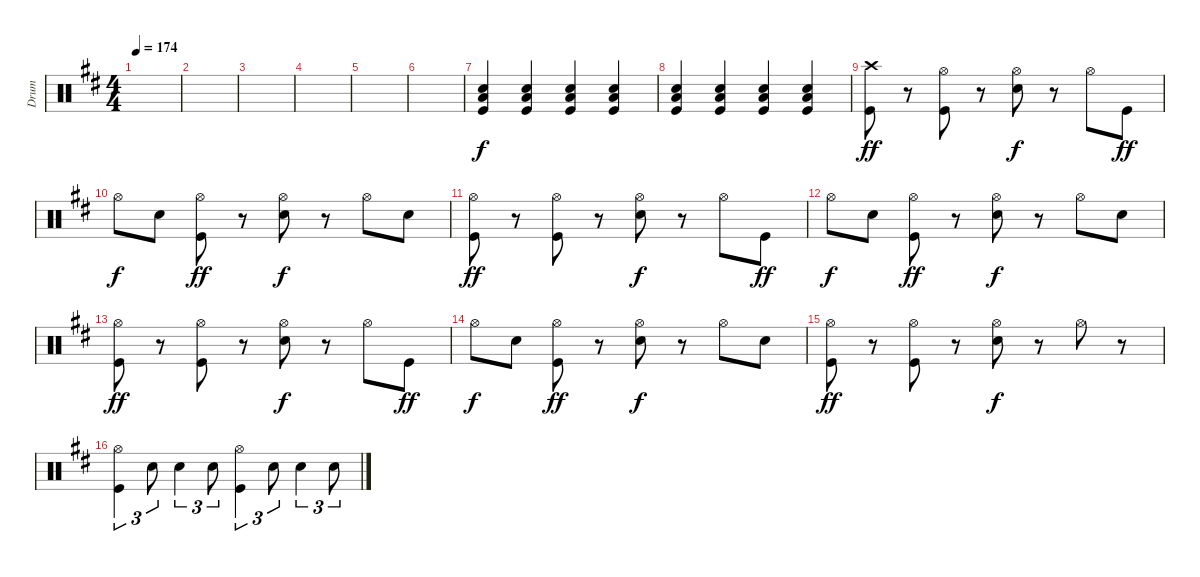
\track ("Drum" "Drum") {instrument percussion}
\staff {score}
\articulation defaults
\ts (4 4)
\tempo 174
\clef neutral
\ks d
|
|
|
|
|
|
("Low Floor Tom (hit)" "Snare (hit) 2" "Kick (hit)").4{volume 13} ("Low Floor Tom (hit)" "Snare (hit) 2" "Kick (hit)").4 ("Low Floor Tom (hit)" "Snare (hit) 2" "Kick (hit)").4 ("Low Floor Tom (hit)" "Snare (hit) 2" "Kick (hit)").4 |
("Low Floor Tom (hit)" "Snare (hit) 2" "Kick (hit)").4 ("Low Floor Tom (hit)" "Snare (hit) 2" "Kick (hit)").4 ("Low Floor Tom (hit)" "Snare (hit) 2" "Kick (hit)").4 ("Low Floor Tom (hit)" "Snare (hit) 2" "Kick (hit)").4 |
("Crash high (hit)" "Kick (hit)").8{dy ff volume 13} r.8 ("Hi-Hat (open)" "Kick (hit)").8 r.8 ("Hi-Hat (open)" "Snare (hit) 2").8{dy f} r.8 "Hi-Hat (open)".8 "Kick (hit)".8{dy ff} |
"Hi-Hat (open)".8{dy f} "Snare (hit) 2".8 ("Hi-Hat (open)" "Kick (hit)").8{dy ff} r.8 ("Hi-Hat (open)" "Snare (hit) 2").8{dy f} r.8 "Hi-Hat (open)".8 "Snare (hit) 2".8 |
("Hi-Hat (open)" "Kick (hit)").8{dy ff} r.8 ("Hi-Hat (open)" "Kick (hit)").8 r.8 ("Hi-Hat (open)" "Snare (hit) 2").8{dy f} r.8 "Hi-Hat (open)".8 "Kick (hit)".8{dy ff} |
"Hi-Hat (open)".8{dy f} "Snare (hit) 2".8 ("Hi-Hat (open)" "Kick (hit)").8{dy ff} r.8 ("Hi-Hat (open)" "Snare (hit) 2").8{dy f} r.8 "Hi-Hat (open)".8 "Snare (hit) 2".8 |
("Hi-Hat (open)" "Kick (hit)").8{dy ff} r.8 ("Hi-Hat (open)" "Kick (hit)").8 r.8 ("Hi-Hat (open)" "Snare (hit) 2").8{dy f} r.8 "Hi-Hat (open)".8 "Kick (hit)".8{dy ff} |
"Hi-Hat (open)".8{dy f} "Snare (hit) 2".8 ("Hi-Hat (open)" "Kick (hit)").8{dy ff} r.8 ("Hi-Hat (open)" "Snare (hit) 2").8{dy f} r.8 "Hi-Hat (open)".8 "Snare (hit) 2".8 |
("Hi-Hat (open)" "Kick (hit)").8{dy ff} r.8 ("Hi-Hat (open)" "Kick (hit)").8 r.8 ("Hi-Hat (open)" "Snare (hit) 2").8{dy f} r.8 "Hi-Hat (open)".8 r.8 |
("Hi-Hat (open)" "Kick (hit)").4{tu (3 2)} "Snare (hit) 2".8{tu (3 2)} "Snare (hit) 2".4{tu (3 2)} "Snare (hit) 2".8{tu (3 2)} ("Hi-Hat (open)" "Kick (hit)").4{tu (3 2)} "Snare (hit) 2".8{tu (3 2)} "Snare (hit) 2".4{tu (3 2)} "Snare (hit) 2".8{tu (3 2)}
